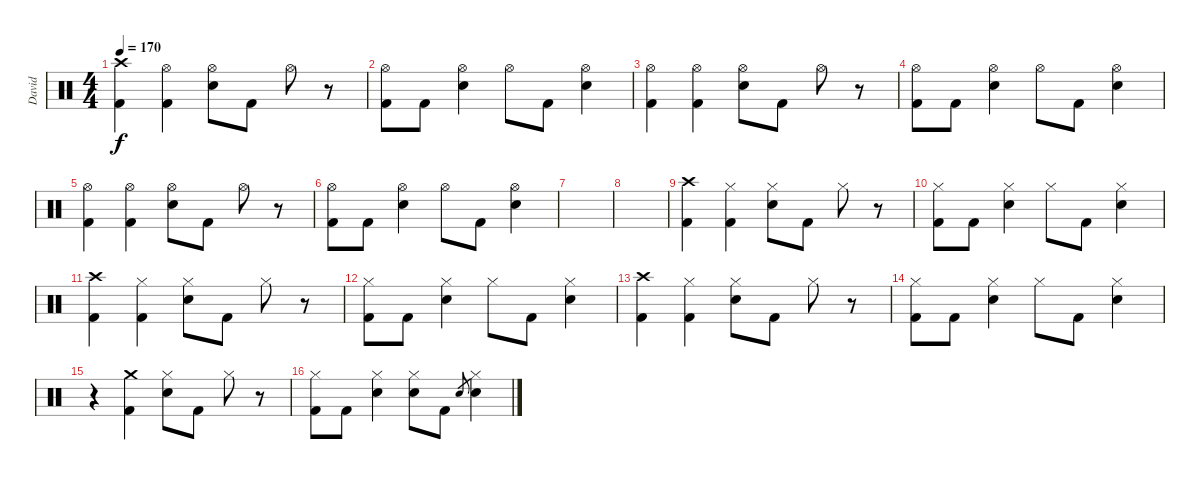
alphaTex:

\track ("David" "David") {instrument percussion}
\staff {score}
\articulation defaults
\ts (4 4)
\tempo 170
\clef neutral
\ks c
("Crash high (hit)" "Kick (hit) 2").4{dy f} ("Hi-Hat (open)" "Kick (hit) 2").4 ("Hi-Hat (open)" "Snare (hit) 2").8 "Kick (hit) 2".8 "Hi-Hat (open)".8 r.8 |
("Hi-Hat (open)" "Kick (hit) 2").8 "Kick (hit) 2".8 ("Hi-Hat (open)" "Snare (hit) 2").4 "Hi-Hat (open)".8 "Kick (hit) 2".8 ("Hi-Hat (open)" "Snare (hit) 2").4 |
("Hi-Hat (open)" "Kick (hit) 2").4 ("Hi-Hat (open)" "Kick (hit) 2").4 ("Hi-Hat (open)" "Snare (hit) 2").8 "Kick (hit) 2".8 "Hi-Hat (open)".8 r.8 |
("Hi-Hat (open)" "Kick (hit) 2").8 "Kick (hit) 2".8 ("Hi-Hat (open)" "Snare (hit) 2").4 "Hi-Hat (open)".8 "Kick (hit) 2".8 ("Hi-Hat (open)" "Snare (hit) 2").4 |
("Hi-Hat (open)" "Kick (hit) 2").4 ("Hi-Hat (open)" "Kick (hit) 2").4 ("Hi-Hat (open)" "Snare (hit) 2").8 "Kick (hit) 2".8 "Hi-Hat (open)".8 r.8 |
("Hi-Hat (open)" "Kick (hit) 2").8 "Kick (hit) 2".8 ("Hi-Hat (open)" "Snare (hit) 2").4 "Hi-Hat (open)".8 "Kick (hit) 2".8 ("Hi-Hat (open)" "Snare (hit) 2").4 |
|
|
("Crash high (hit)" "Kick (hit) 2").4 ("Hi-Hat (closed)" "Kick (hit) 2").4 ("Hi-Hat (closed)" "Snare (hit) 2").8 "Kick (hit) 2".8 "Hi-Hat (closed)".8 r.8 |
("Hi-Hat (closed)" "Kick (hit) 2").8 "Kick (hit) 2".8 ("Hi-Hat (closed)" "Snare (hit) 2").4 "Hi-Hat (closed)".8 "Kick (hit) 2".8 ("Hi-Hat (closed)" "Snare (hit) 2").4 |
("Crash high (hit)" "Kick (hit) 2").4 ("Hi-Hat (closed)" "Kick (hit) 2").4 ("Hi-Hat (closed)" "Snare (hit) 2").8 "Kick (hit) 2".8 "Hi-Hat (closed)".8 r.8 |
("Hi-Hat (closed)" "Kick (hit) 2").8 "Kick (hit) 2".8 ("Hi-Hat (closed)" "Snare (hit) 2").4 "Hi-Hat (closed)".8 "Kick (hit) 2".8 ("Hi-Hat (closed)" "Snare (hit) 2").4 |
("Crash high (hit)" "Kick (hit) 2").4 ("Hi-Hat (closed)" "Kick (hit) 2").4 ("Hi-Hat (closed)" "Snare (hit) 2").8 "Kick (hit) 2".8 "Hi-Hat (closed)".8 r.8 |
("Hi-Hat (closed)" "Kick (hit) 2").8 "Kick (hit) 2".8 ("Hi-Hat (closed)" "Snare (hit) 2").4 "Hi-Hat (closed)".8 "Kick (hit) 2".8 ("Hi-Hat (closed)" "Snare (hit) 2").4 |
r.4 ("Crash medium (hit)" "Kick (hit) 2").4 ("Hi-Hat (closed)" "Snare (hit) 2").8 "Kick (hit) 2".8 "Hi-Hat (closed)".8 r.8 |
("Hi-Hat (closed)" "Kick (hit) 2").8 "Kick (hit) 2".8 ("Hi-Hat (closed)" "Snare (hit) 2").4 ("Hi-Hat (closed)" "Snare (hit) 2").8 "Kick (hit) 2".8 "Snare (hit) 2".8{gr} ("Hi-Hat (closed)" "Snare (hit) 2").4
